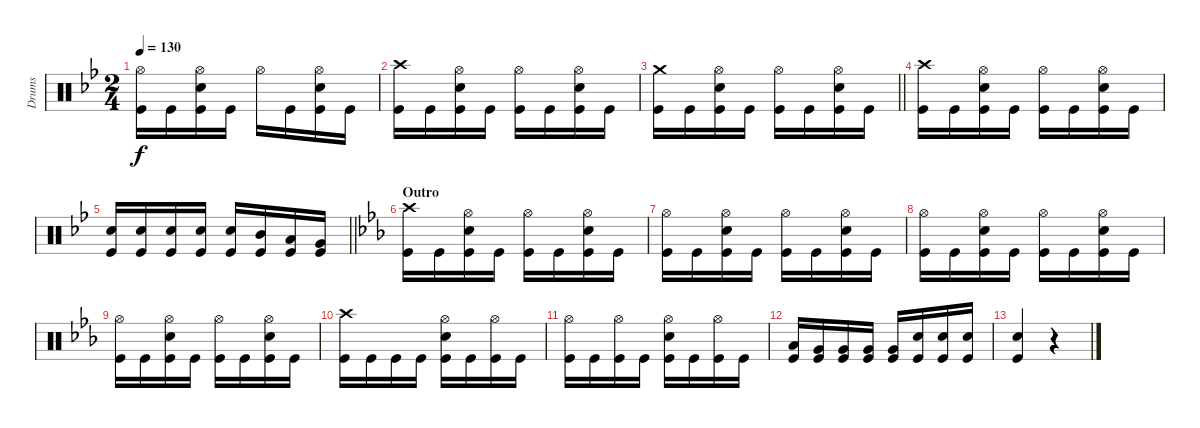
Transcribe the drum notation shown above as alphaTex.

\track ("Drums" "Drums") {instrument percussion}
\staff {score}
\articulation defaults
\ts (2 4)
\tempo 130
\clef neutral
\ks gminor
("Kick (hit)" "Hi-Hat (open)").16{dy f} "Kick (hit)".16 ("Kick (hit)" "Snare (hit) 2" "Hi-Hat (open)").16 "Kick (hit)".16 "Hi-Hat (open)".16 "Kick (hit)".16 ("Kick (hit)" "Snare (hit) 2" "Hi-Hat (open)").16 "Kick (hit)".16 |
("Kick (hit)" "Crash high (hit)").16 "Kick (hit)".16 ("Kick (hit)" "Hi-Hat (open)" "Snare (hit) 2").16 "Kick (hit)".16 ("Kick (hit)" "Hi-Hat (open)").16 "Kick (hit)".16 ("Kick (hit)" "Hi-Hat (open)" "Snare (hit) 2").16 "Kick (hit)".16 |
\barLineRight lightlight
("Kick (hit)" "Crash medium (hit)").16 "Kick (hit)".16 ("Kick (hit)" "Hi-Hat (open)" "Snare (hit) 2").16 "Kick (hit)".16 ("Kick (hit)" "Hi-Hat (open)").16 "Kick (hit)".16 ("Kick (hit)" "Hi-Hat (open)" "Snare (hit) 2").16 "Kick (hit)".16 |
("Kick (hit)" "Crash high (hit)").16 "Kick (hit)".16 ("Kick (hit)" "Hi-Hat (open)" "Snare (hit) 2").16 "Kick (hit)".16 ("Kick (hit)" "Hi-Hat (open)").16 "Kick (hit)".16 ("Kick (hit)" "Hi-Hat (open)" "Snare (hit) 2").16 "Kick (hit)".16 |
\barLineRight lightlight
("Snare (hit) 2" "Kick (hit)").16 ("Snare (hit) 2" "Kick (hit)").16 ("Snare (hit) 2" "Kick (hit)").16 ("Snare (hit) 2" "Kick (hit)").16 ("Snare (hit) 2" "Kick (hit)").16 ("Mid Tom (hit)" "Kick (hit)").16 ("Low Tom (hit)" "Kick (hit)").16 ("Very Low Tom (hit)" "Kick (hit)").16 |
\section ("" "Outro")
\ks cminor
("Kick (hit)" "Crash high (hit)").16 "Kick (hit)".16 ("Kick (hit)" "Snare (hit) 2" "Hi-Hat (open)").16 "Kick (hit)".16 ("Kick (hit)" "Hi-Hat (open)").16 "Kick (hit)".16 ("Kick (hit)" "Snare (hit) 2" "Hi-Hat (open)").16 "Kick (hit)".16 |
("Kick (hit)" "Hi-Hat (open)").16 "Kick (hit)".16 ("Kick (hit)" "Snare (hit) 2" "Hi-Hat (open)").16 "Kick (hit)".16 ("Kick (hit)" "Hi-Hat (open)").16 "Kick (hit)".16 ("Kick (hit)" "Snare (hit) 2" "Hi-Hat (open)").16 "Kick (hit)".16 |
("Kick (hit)" "Hi-Hat (open)").16 "Kick (hit)".16 ("Kick (hit)" "Snare (hit) 2" "Hi-Hat (open)").16 "Kick (hit)".16 ("Kick (hit)" "Hi-Hat (open)").16 "Kick (hit)".16 ("Kick (hit)" "Snare (hit) 2" "Hi-Hat (open)").16 "Kick (hit)".16 |
("Kick (hit)" "Hi-Hat (open)").16 "Kick (hit)".16 ("Kick (hit)" "Snare (hit) 2" "Hi-Hat (open)").16 "Kick (hit)".16 ("Kick (hit)" "Hi-Hat (open)").16 "Kick (hit)".16 ("Kick (hit)" "Snare (hit) 2" "Hi-Hat (open)").16 "Kick (hit)".16 |
("Kick (hit)" "Crash high (hit)").16 "Kick (hit)".16 "Kick (hit)".16 "Kick (hit)".16 ("Kick (hit)" "Snare (hit) 2" "Hi-Hat (open)").16 "Kick (hit)".16 ("Kick (hit)" "Hi-Hat (open)").16 "Kick (hit)".16 |
("Kick (hit)" "Hi-Hat (open)").16 "Kick (hit)".16 ("Kick (hit)" "Hi-Hat (open)").16 "Kick (hit)".16 ("Kick (hit)" "Snare (hit) 2" "Hi-Hat (open)").16 "Kick (hit)".16 ("Kick (hit)" "Hi-Hat (open)").16 "Kick (hit)".16 |
("Kick (hit)" "Low Tom (hit)").16 ("Kick (hit)" "Very Low Tom (hit)").16 ("Kick (hit)" "Very Low Tom (hit)").16 ("Kick (hit)" "Very Low Tom (hit)").16 ("Kick (hit)" "Very Low Tom (hit)").16 ("Snare (hit) 2" "Kick (hit)").16 ("Snare (hit) 2" "Kick (hit)").16 ("Snare (hit) 2" "Kick (hit)").16 |
("Snare (hit) 2" "Kick (hit)").4 r.4
